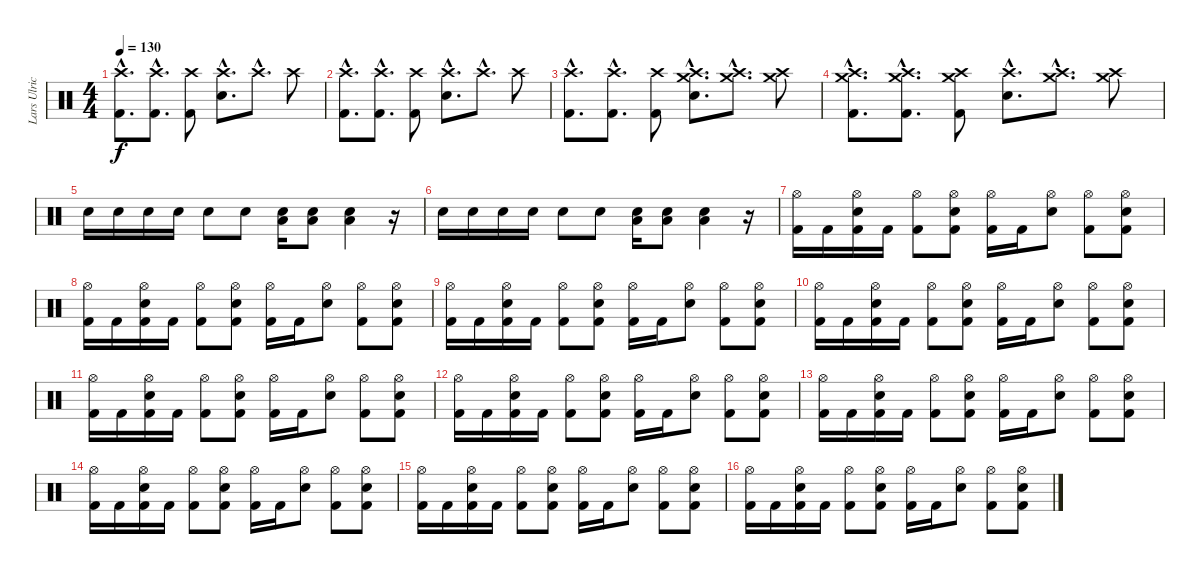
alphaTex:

\track ("Lars Ulrich" "Lars Ulric") {instrument percussion}
\staff {score}
\articulation defaults
\ts (4 4)
\tempo 130
\clef neutral
\ks c
("Crash high (hit)"{hac} "Kick (hit) 2"{hac}).8{d dy f} ("Crash high (hit)"{hac} "Kick (hit) 2"{hac}).8{d} ("Crash high (hit)" "Kick (hit) 2").8 ("Crash high (hit)"{hac} "Electric Snare (hit)"{hac}).8{d} "Crash high (hit)"{hac}.8{d} "Crash high (hit)".8 |
("Crash high (hit)"{hac} "Kick (hit) 2"{hac}).8{d} ("Crash high (hit)"{hac} "Kick (hit) 2"{hac}).8{d} ("Crash high (hit)" "Kick (hit) 2").8 ("Crash high (hit)"{hac} "Electric Snare (hit)"{hac}).8{d} "Crash high (hit)"{hac}.8{d} "Crash high (hit)".8 |
("Crash high (hit)"{hac} "Kick (hit) 2"{hac}).8{d} ("Crash high (hit)"{hac} "Kick (hit) 2"{hac}).8{d} ("Crash high (hit)" "Kick (hit) 2").8 ("Crash medium (hit)"{hac} "Crash high (hit)"{hac} "Electric Snare (hit)"{hac}).8{d} ("Crash medium (hit)"{hac} "Crash high (hit)"{hac}).8{d} ("Crash medium (hit)" "Crash high (hit)").8 |
("Crash medium (hit)"{hac} "Crash high (hit)"{hac} "Kick (hit) 2"{hac}).8{d} ("Crash medium (hit)"{hac} "Crash high (hit)"{hac} "Kick (hit) 2"{hac}).8{d} ("Crash medium (hit)" "Crash high (hit)" "Kick (hit) 2").8 ("Crash high (hit)"{hac} "Electric Snare (hit)"{hac}).8{d} ("Crash medium (hit)"{hac} "Crash high (hit)"{hac}).8{d} ("Crash medium (hit)" "Crash high (hit)").8 |
"Electric Snare (hit)".16 "Electric Snare (hit)".16 "Electric Snare (hit)".16 "Electric Snare (hit)".16 "Electric Snare (hit)".8 "Electric Snare (hit)".8 ("Electric Snare (hit)" "Low Floor Tom (hit)").16 ("Electric Snare (hit)" "Low Floor Tom (hit)").8 ("Electric Snare (hit)" "Low Floor Tom (hit)").4 r.16 |
"Electric Snare (hit)".16 "Electric Snare (hit)".16 "Electric Snare (hit)".16 "Electric Snare (hit)".16 "Electric Snare (hit)".8 "Electric Snare (hit)".8 ("Electric Snare (hit)" "Low Floor Tom (hit)").16 ("Electric Snare (hit)" "Low Floor Tom (hit)").8 ("Electric Snare (hit)" "Low Floor Tom (hit)").4 r.16 |
("Hi-Hat (open)" "Kick (hit) 2").16 "Kick (hit) 2".16 ("Hi-Hat (open)" "Electric Snare (hit)" "Kick (hit) 2").16 "Kick (hit) 2".16 ("Hi-Hat (open)" "Kick (hit) 2").8 ("Hi-Hat (open)" "Electric Snare (hit)" "Kick (hit) 2").8 ("Hi-Hat (open)" "Kick (hit) 2").16 "Kick (hit) 2".16 ("Hi-Hat (open)" "Electric Snare (hit)").8 ("Hi-Hat (open)" "Kick (hit) 2").8 ("Hi-Hat (open)" "Electric Snare (hit)" "Kick (hit) 2").8 |
("Hi-Hat (open)" "Kick (hit) 2").16 "Kick (hit) 2".16 ("Hi-Hat (open)" "Electric Snare (hit)" "Kick (hit) 2").16 "Kick (hit) 2".16 ("Hi-Hat (open)" "Kick (hit) 2").8 ("Hi-Hat (open)" "Electric Snare (hit)" "Kick (hit) 2").8 ("Hi-Hat (open)" "Kick (hit) 2").16 "Kick (hit) 2".16 ("Hi-Hat (open)" "Electric Snare (hit)").8 ("Hi-Hat (open)" "Kick (hit) 2").8 ("Hi-Hat (open)" "Electric Snare (hit)" "Kick (hit) 2").8 |
("Hi-Hat (open)" "Kick (hit) 2").16 "Kick (hit) 2".16 ("Hi-Hat (open)" "Electric Snare (hit)" "Kick (hit) 2").16 "Kick (hit) 2".16 ("Hi-Hat (open)" "Kick (hit) 2").8 ("Hi-Hat (open)" "Electric Snare (hit)" "Kick (hit) 2").8 ("Hi-Hat (open)" "Kick (hit) 2").16 "Kick (hit) 2".16 ("Hi-Hat (open)" "Electric Snare (hit)").8 ("Hi-Hat (open)" "Kick (hit) 2").8 ("Hi-Hat (open)" "Electric Snare (hit)" "Kick (hit) 2").8 |
("Hi-Hat (open)" "Kick (hit) 2").16 "Kick (hit) 2".16 ("Hi-Hat (open)" "Electric Snare (hit)" "Kick (hit) 2").16 "Kick (hit) 2".16 ("Hi-Hat (open)" "Kick (hit) 2").8 ("Hi-Hat (open)" "Electric Snare (hit)" "Kick (hit) 2").8 ("Hi-Hat (open)" "Kick (hit) 2").16 "Kick (hit) 2".16 ("Hi-Hat (open)" "Electric Snare (hit)").8 ("Hi-Hat (open)" "Kick (hit) 2").8 ("Hi-Hat (open)" "Electric Snare (hit)" "Kick (hit) 2").8 |
("Hi-Hat (open)" "Kick (hit) 2").16 "Kick (hit) 2".16 ("Hi-Hat (open)" "Electric Snare (hit)" "Kick (hit) 2").16 "Kick (hit) 2".16 ("Hi-Hat (open)" "Kick (hit) 2").8 ("Hi-Hat (open)" "Electric Snare (hit)" "Kick (hit) 2").8 ("Hi-Hat (open)" "Kick (hit) 2").16 "Kick (hit) 2".16 ("Hi-Hat (open)" "Electric Snare (hit)").8 ("Hi-Hat (open)" "Kick (hit) 2").8 ("Hi-Hat (open)" "Electric Snare (hit)" "Kick (hit) 2").8 |
("Hi-Hat (open)" "Kick (hit) 2").16 "Kick (hit) 2".16 ("Hi-Hat (open)" "Electric Snare (hit)" "Kick (hit) 2").16 "Kick (hit) 2".16 ("Hi-Hat (open)" "Kick (hit) 2").8 ("Hi-Hat (open)" "Electric Snare (hit)" "Kick (hit) 2").8 ("Hi-Hat (open)" "Kick (hit) 2").16 "Kick (hit) 2".16 ("Hi-Hat (open)" "Electric Snare (hit)").8 ("Hi-Hat (open)" "Kick (hit) 2").8 ("Hi-Hat (open)" "Electric Snare (hit)" "Kick (hit) 2").8 |
("Hi-Hat (open)" "Kick (hit) 2").16 "Kick (hit) 2".16 ("Hi-Hat (open)" "Electric Snare (hit)" "Kick (hit) 2").16 "Kick (hit) 2".16 ("Hi-Hat (open)" "Kick (hit) 2").8 ("Hi-Hat (open)" "Electric Snare (hit)" "Kick (hit) 2").8 ("Hi-Hat (open)" "Kick (hit) 2").16 "Kick (hit) 2".16 ("Hi-Hat (open)" "Electric Snare (hit)").8 ("Hi-Hat (open)" "Kick (hit) 2").8 ("Hi-Hat (open)" "Electric Snare (hit)" "Kick (hit) 2").8 |
("Hi-Hat (open)" "Kick (hit) 2").16 "Kick (hit) 2".16 ("Hi-Hat (open)" "Electric Snare (hit)" "Kick (hit) 2").16 "Kick (hit) 2".16 ("Hi-Hat (open)" "Kick (hit) 2").8 ("Hi-Hat (open)" "Electric Snare (hit)" "Kick (hit) 2").8 ("Hi-Hat (open)" "Kick (hit) 2").16 "Kick (hit) 2".16 ("Hi-Hat (open)" "Electric Snare (hit)").8 ("Hi-Hat (open)" "Kick (hit) 2").8 ("Hi-Hat (open)" "Electric Snare (hit)" "Kick (hit) 2").8 |
("Hi-Hat (open)" "Kick (hit) 2").16 "Kick (hit) 2".16 ("Hi-Hat (open)" "Electric Snare (hit)" "Kick (hit) 2").16 "Kick (hit) 2".16 ("Hi-Hat (open)" "Kick (hit) 2").8 ("Hi-Hat (open)" "Electric Snare (hit)" "Kick (hit) 2").8 ("Hi-Hat (open)" "Kick (hit) 2").16 "Kick (hit) 2".16 ("Hi-Hat (open)" "Electric Snare (hit)").8 ("Hi-Hat (open)" "Kick (hit) 2").8 ("Hi-Hat (open)" "Electric Snare (hit)" "Kick (hit) 2").8 |
("Hi-Hat (open)" "Kick (hit) 2").16 "Kick (hit) 2".16 ("Hi-Hat (open)" "Electric Snare (hit)" "Kick (hit) 2").16 "Kick (hit) 2".16 ("Hi-Hat (open)" "Kick (hit) 2").8 ("Hi-Hat (open)" "Electric Snare (hit)" "Kick (hit) 2").8 ("Hi-Hat (open)" "Kick (hit) 2").16 "Kick (hit) 2".16 ("Hi-Hat (open)" "Electric Snare (hit)").8 ("Hi-Hat (open)" "Kick (hit) 2").8 ("Hi-Hat (open)" "Electric Snare (hit)" "Kick (hit) 2").8
